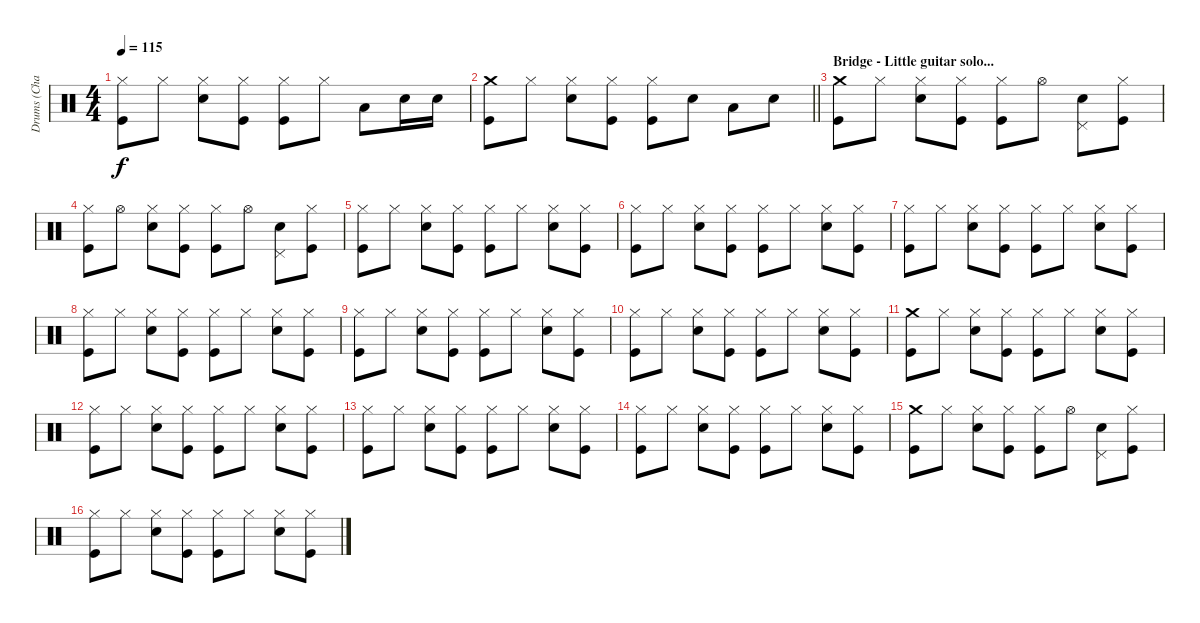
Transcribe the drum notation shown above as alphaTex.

\track ("Drums (Charlie)" "Drums (Cha") {instrument percussion}
\staff {score}
\articulation defaults
\ts (4 4)
\tempo 115
\clef neutral
\ks c
("Hi-Hat (closed)" "Kick (hit)").8{dy f} "Hi-Hat (closed)".8 ("Hi-Hat (closed)" "Electric Snare (hit)").8 ("Hi-Hat (closed)" "Kick (hit)").8 ("Hi-Hat (closed)" "Kick (hit)").8 "Hi-Hat (closed)".8 "Low Tom (hit)".8 "Electric Snare (hit)".16 "Electric Snare (hit)".16 |
\barLineRight lightlight
("Crash medium (hit)" "Kick (hit)").8 "Hi-Hat (closed)".8 ("Hi-Hat (closed)" "Electric Snare (hit)").8 ("Hi-Hat (closed)" "Kick (hit)").8 ("Hi-Hat (closed)" "Kick (hit)").8 "Electric Snare (hit)".8 "Low Tom (hit)".8 "Electric Snare (hit)".8 |
\section ("" "Bridge - Little guitar solo...")
("Crash medium (hit)" "Kick (hit)").8 "Hi-Hat (closed)".8 ("Hi-Hat (closed)" "Electric Snare (hit)").8 ("Hi-Hat (closed)" "Kick (hit)").8 ("Hi-Hat (closed)" "Kick (hit)").8 "Hi-Hat (open)".8 ("Pedal Hi-Hat (hit)" "Electric Snare (hit)").8 ("Hi-Hat (closed)" "Kick (hit)").8 |
("Hi-Hat (closed)" "Kick (hit)").8 "Hi-Hat (open)".8 ("Hi-Hat (closed)" "Electric Snare (hit)").8 ("Hi-Hat (closed)" "Kick (hit)").8 ("Hi-Hat (closed)" "Kick (hit)").8 "Hi-Hat (open)".8 ("Pedal Hi-Hat (hit)" "Electric Snare (hit)").8 ("Hi-Hat (closed)" "Kick (hit)").8 |
("Hi-Hat (closed)" "Kick (hit)").8 "Hi-Hat (closed)".8 ("Hi-Hat (closed)" "Electric Snare (hit)").8 ("Hi-Hat (closed)" "Kick (hit)").8 ("Hi-Hat (closed)" "Kick (hit)").8 "Hi-Hat (closed)".8 ("Hi-Hat (closed)" "Electric Snare (hit)").8 ("Hi-Hat (closed)" "Kick (hit)").8 |
("Hi-Hat (closed)" "Kick (hit)").8 "Hi-Hat (closed)".8 ("Hi-Hat (closed)" "Electric Snare (hit)").8 ("Hi-Hat (closed)" "Kick (hit)").8 ("Hi-Hat (closed)" "Kick (hit)").8 "Hi-Hat (closed)".8 ("Hi-Hat (closed)" "Electric Snare (hit)").8 ("Hi-Hat (closed)" "Kick (hit)").8 |
("Hi-Hat (closed)" "Kick (hit)").8 "Hi-Hat (closed)".8 ("Hi-Hat (closed)" "Electric Snare (hit)").8 ("Hi-Hat (closed)" "Kick (hit)").8 ("Hi-Hat (closed)" "Kick (hit)").8 "Hi-Hat (closed)".8 ("Hi-Hat (closed)" "Electric Snare (hit)").8 ("Hi-Hat (closed)" "Kick (hit)").8 |
("Hi-Hat (closed)" "Kick (hit)").8 "Hi-Hat (closed)".8 ("Hi-Hat (closed)" "Electric Snare (hit)").8 ("Hi-Hat (closed)" "Kick (hit)").8 ("Hi-Hat (closed)" "Kick (hit)").8 "Hi-Hat (closed)".8 ("Hi-Hat (closed)" "Electric Snare (hit)").8 ("Hi-Hat (closed)" "Kick (hit)").8 |
("Hi-Hat (closed)" "Kick (hit)").8 "Hi-Hat (closed)".8 ("Hi-Hat (closed)" "Electric Snare (hit)").8 ("Hi-Hat (closed)" "Kick (hit)").8 ("Hi-Hat (closed)" "Kick (hit)").8 "Hi-Hat (closed)".8 ("Hi-Hat (closed)" "Electric Snare (hit)").8 ("Hi-Hat (closed)" "Kick (hit)").8 |
("Hi-Hat (closed)" "Kick (hit)").8 "Hi-Hat (closed)".8 ("Hi-Hat (closed)" "Electric Snare (hit)").8 ("Hi-Hat (closed)" "Kick (hit)").8 ("Hi-Hat (closed)" "Kick (hit)").8 "Hi-Hat (closed)".8 ("Hi-Hat (closed)" "Electric Snare (hit)").8 ("Hi-Hat (closed)" "Kick (hit)").8 |
("Crash medium (hit)" "Kick (hit)").8 "Hi-Hat (closed)".8 ("Hi-Hat (closed)" "Electric Snare (hit)").8 ("Hi-Hat (closed)" "Kick (hit)").8 ("Hi-Hat (closed)" "Kick (hit)").8 "Hi-Hat (closed)".8 ("Hi-Hat (closed)" "Electric Snare (hit)").8 ("Hi-Hat (closed)" "Kick (hit)").8 |
("Hi-Hat (closed)" "Kick (hit)").8 "Hi-Hat (closed)".8 ("Hi-Hat (closed)" "Electric Snare (hit)").8 ("Hi-Hat (closed)" "Kick (hit)").8 ("Hi-Hat (closed)" "Kick (hit)").8 "Hi-Hat (closed)".8 ("Hi-Hat (closed)" "Electric Snare (hit)").8 ("Hi-Hat (closed)" "Kick (hit)").8 |
("Hi-Hat (closed)" "Kick (hit)").8 "Hi-Hat (closed)".8 ("Hi-Hat (closed)" "Electric Snare (hit)").8 ("Hi-Hat (closed)" "Kick (hit)").8 ("Hi-Hat (closed)" "Kick (hit)").8 "Hi-Hat (closed)".8 ("Hi-Hat (closed)" "Electric Snare (hit)").8 ("Hi-Hat (closed)" "Kick (hit)").8 |
("Hi-Hat (closed)" "Kick (hit)").8 "Hi-Hat (closed)".8 ("Hi-Hat (closed)" "Electric Snare (hit)").8 ("Hi-Hat (closed)" "Kick (hit)").8 ("Hi-Hat (closed)" "Kick (hit)").8 "Hi-Hat (closed)".8 ("Hi-Hat (closed)" "Electric Snare (hit)").8 ("Hi-Hat (closed)" "Kick (hit)").8 |
("Crash medium (hit)" "Kick (hit)").8 "Hi-Hat (closed)".8 ("Hi-Hat (closed)" "Electric Snare (hit)").8 ("Hi-Hat (closed)" "Kick (hit)").8 ("Hi-Hat (closed)" "Kick (hit)").8 "Hi-Hat (open)".8 ("Pedal Hi-Hat (hit)" "Electric Snare (hit)").8 ("Hi-Hat (closed)" "Kick (hit)").8 |
("Hi-Hat (closed)" "Kick (hit)").8 "Hi-Hat (closed)".8 ("Hi-Hat (closed)" "Electric Snare (hit)").8 ("Hi-Hat (closed)" "Kick (hit)").8 ("Hi-Hat (closed)" "Kick (hit)").8 "Hi-Hat (closed)".8 ("Hi-Hat (closed)" "Electric Snare (hit)").8 ("Hi-Hat (closed)" "Kick (hit)").8
